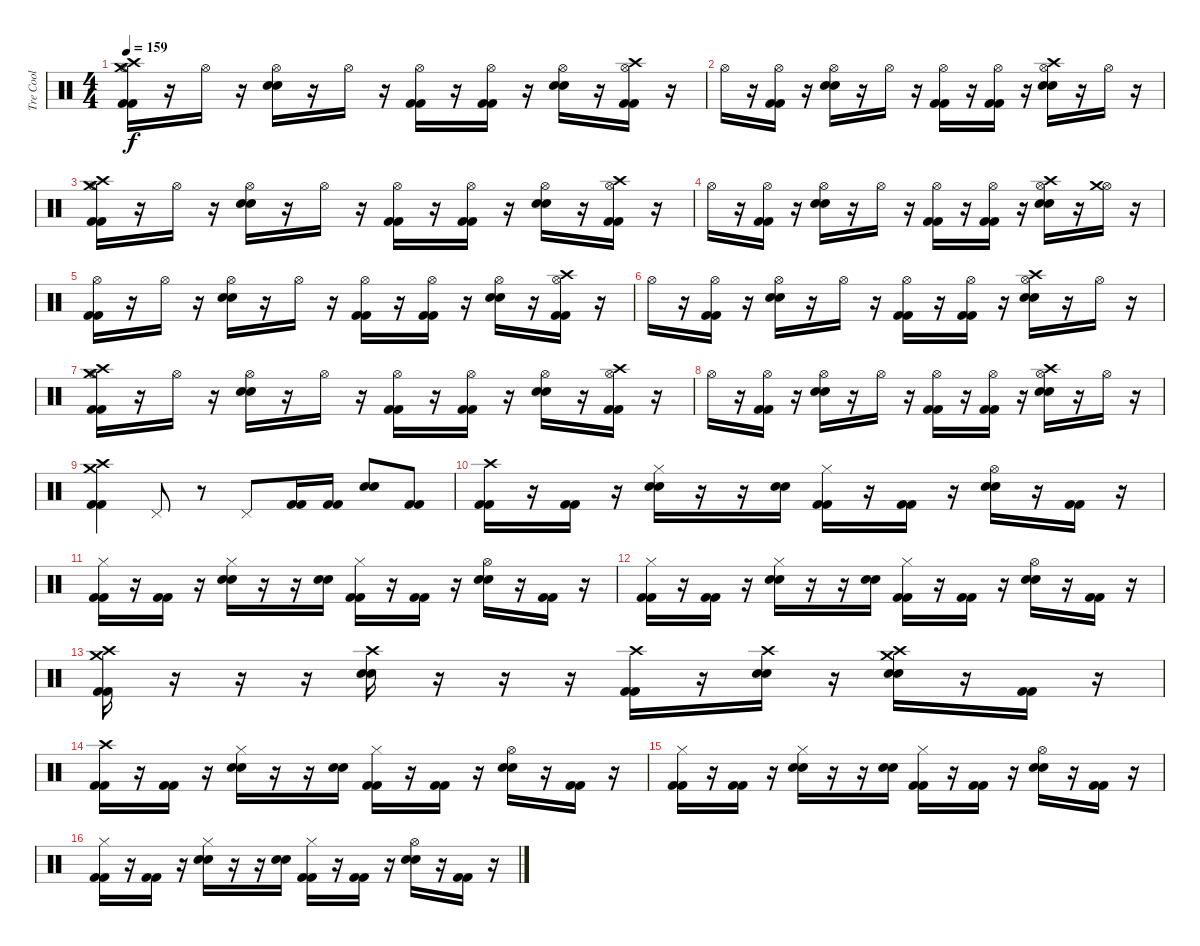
\track ("Tre Cool" "Tre Cool") {instrument percussion}
\staff {score}
\articulation defaults
\ts (4 4)
\tempo 159
\clef neutral
\ks c
("Hi-Hat (open)" "Crash high (hit)" "Crash medium (hit)" "Kick (hit) 2" "Kick (hit) 2").16{dy f} r.16 "Hi-Hat (open)".16 r.16 ("Hi-Hat (open)" "Snare (hit) 2" "Snare (hit) 2").16 r.16 "Hi-Hat (open)".16 r.16 ("Hi-Hat (open)" "Kick (hit) 2" "Kick (hit) 2").16 r.16 ("Hi-Hat (open)" "Kick (hit) 2" "Kick (hit) 2").16 r.16 ("Hi-Hat (open)" "Snare (hit) 2" "Snare (hit) 2").16 r.16 ("Hi-Hat (open)" "Crash high (hit)" "Kick (hit) 2" "Kick (hit) 2").16 r.16 |
"Hi-Hat (open)".16 r.16 ("Hi-Hat (open)" "Kick (hit) 2" "Kick (hit) 2").16 r.16 ("Hi-Hat (open)" "Snare (hit) 2" "Snare (hit) 2").16 r.16 "Hi-Hat (open)".16 r.16 ("Hi-Hat (open)" "Kick (hit) 2" "Kick (hit) 2").16 r.16 ("Hi-Hat (open)" "Kick (hit) 2" "Kick (hit) 2").16 r.16 ("Hi-Hat (open)" "Crash high (hit)" "Snare (hit) 2" "Snare (hit) 2").16 r.16 "Hi-Hat (open)".16 r.16 |
("Hi-Hat (open)" "Crash high (hit)" "Crash medium (hit)" "Kick (hit) 2" "Kick (hit) 2").16 r.16 "Hi-Hat (open)".16 r.16 ("Hi-Hat (open)" "Snare (hit) 2" "Snare (hit) 2").16 r.16 "Hi-Hat (open)".16 r.16 ("Hi-Hat (open)" "Kick (hit) 2" "Kick (hit) 2").16 r.16 ("Hi-Hat (open)" "Kick (hit) 2" "Kick (hit) 2").16 r.16 ("Hi-Hat (open)" "Snare (hit) 2" "Snare (hit) 2").16 r.16 ("Hi-Hat (open)" "Crash high (hit)" "Kick (hit) 2" "Kick (hit) 2").16 r.16 |
"Hi-Hat (open)".16 r.16 ("Hi-Hat (open)" "Kick (hit) 2" "Kick (hit) 2").16 r.16 ("Hi-Hat (open)" "Snare (hit) 2" "Snare (hit) 2").16 r.16 "Hi-Hat (open)".16 r.16 ("Hi-Hat (open)" "Kick (hit) 2" "Kick (hit) 2").16 r.16 ("Hi-Hat (open)" "Kick (hit) 2" "Kick (hit) 2").16 r.16 ("Hi-Hat (open)" "Crash high (hit)" "Snare (hit) 2" "Snare (hit) 2").16 r.16 ("Hi-Hat (open)" "Crash medium (hit)").16 r.16 |
("Hi-Hat (open)" "Kick (hit) 2" "Kick (hit) 2").16 r.16 "Hi-Hat (open)".16 r.16 ("Hi-Hat (open)" "Snare (hit) 2" "Snare (hit) 2").16 r.16 "Hi-Hat (open)".16 r.16 ("Hi-Hat (open)" "Kick (hit) 2" "Kick (hit) 2").16 r.16 ("Hi-Hat (open)" "Kick (hit) 2" "Kick (hit) 2").16 r.16 ("Hi-Hat (open)" "Snare (hit) 2" "Snare (hit) 2").16 r.16 ("Hi-Hat (open)" "Crash high (hit)" "Kick (hit) 2" "Kick (hit) 2").16 r.16 |
"Hi-Hat (open)".16 r.16 ("Hi-Hat (open)" "Kick (hit) 2" "Kick (hit) 2").16 r.16 ("Hi-Hat (open)" "Snare (hit) 2" "Snare (hit) 2").16 r.16 "Hi-Hat (open)".16 r.16 ("Hi-Hat (open)" "Kick (hit) 2" "Kick (hit) 2").16 r.16 ("Hi-Hat (open)" "Kick (hit) 2" "Kick (hit) 2").16 r.16 ("Hi-Hat (open)" "Crash high (hit)" "Snare (hit) 2" "Snare (hit) 2").16 r.16 "Hi-Hat (open)".16 r.16 |
("Hi-Hat (open)" "Crash high (hit)" "Crash medium (hit)" "Kick (hit) 2" "Kick (hit) 2").16 r.16 "Hi-Hat (open)".16 r.16 ("Hi-Hat (open)" "Snare (hit) 2" "Snare (hit) 2").16 r.16 "Hi-Hat (open)".16 r.16 ("Hi-Hat (open)" "Kick (hit) 2" "Kick (hit) 2").16 r.16 ("Hi-Hat (open)" "Kick (hit) 2" "Kick (hit) 2").16 r.16 ("Hi-Hat (open)" "Snare (hit) 2" "Snare (hit) 2").16 r.16 ("Hi-Hat (open)" "Crash high (hit)" "Kick (hit) 2" "Kick (hit) 2").16 r.16 |
"Hi-Hat (open)".16 r.16 ("Hi-Hat (open)" "Kick (hit) 2" "Kick (hit) 2").16 r.16 ("Hi-Hat (open)" "Snare (hit) 2" "Snare (hit) 2").16 r.16 "Hi-Hat (open)".16 r.16 ("Hi-Hat (open)" "Kick (hit) 2" "Kick (hit) 2").16 r.16 ("Hi-Hat (open)" "Kick (hit) 2" "Kick (hit) 2").16 r.16 ("Hi-Hat (open)" "Crash high (hit)" "Snare (hit) 2" "Snare (hit) 2").16 r.16 "Hi-Hat (open)".16 r.16 |
("Crash medium (hit)" "Crash high (hit)" "Kick (hit) 2" "Kick (hit) 2").4 "Pedal Hi-Hat (hit)".8 r.8 "Pedal Hi-Hat (hit)".8 ("Kick (hit) 2" "Kick (hit) 2").16 ("Kick (hit) 2" "Kick (hit) 2").16 ("Snare (hit) 2" "Snare (hit) 2").8 ("Kick (hit) 2" "Kick (hit) 2").8 |
("Crash high (hit)" "Kick (hit) 2" "Kick (hit) 2").16 r.16 ("Kick (hit) 2" "Kick (hit) 2").16 r.16 ("Hi-Hat (closed)" "Snare (hit) 2" "Snare (hit) 2").16 r.16 r.16 ("Snare (hit) 2" "Snare (hit) 2").16 ("Hi-Hat (closed)" "Kick (hit) 2" "Kick (hit) 2").16 r.16 ("Kick (hit) 2" "Kick (hit) 2").16 r.16 ("Hi-Hat (open)" "Snare (hit) 2" "Snare (hit) 2").16 r.16 ("Kick (hit) 2" "Kick (hit) 2").16 r.16 |
("Hi-Hat (closed)" "Kick (hit) 2" "Kick (hit) 2").16 r.16 ("Kick (hit) 2" "Kick (hit) 2").16 r.16 ("Hi-Hat (closed)" "Snare (hit) 2" "Snare (hit) 2").16 r.16 r.16 ("Snare (hit) 2" "Snare (hit) 2").16 ("Hi-Hat (closed)" "Kick (hit) 2" "Kick (hit) 2").16 r.16 ("Kick (hit) 2" "Kick (hit) 2").16 r.16 ("Hi-Hat (open)" "Snare (hit) 2" "Snare (hit) 2").16 r.16 ("Kick (hit) 2" "Kick (hit) 2").16 r.16 |
("Hi-Hat (closed)" "Kick (hit) 2" "Kick (hit) 2").16 r.16 ("Kick (hit) 2" "Kick (hit) 2").16 r.16 ("Hi-Hat (closed)" "Snare (hit) 2" "Snare (hit) 2").16 r.16 r.16 ("Snare (hit) 2" "Snare (hit) 2").16 ("Hi-Hat (closed)" "Kick (hit) 2" "Kick (hit) 2").16 r.16 ("Kick (hit) 2" "Kick (hit) 2").16 r.16 ("Hi-Hat (open)" "Snare (hit) 2" "Snare (hit) 2").16 r.16 ("Kick (hit) 2" "Kick (hit) 2").16 r.16 |
("Crash high (hit)" "Crash medium (hit)" "Kick (hit) 2" "Kick (hit) 2").16 r.16 r.16 r.16 ("Crash high (hit)" "Snare (hit) 2" "Snare (hit) 2").16 r.16 r.16 r.16 ("Crash high (hit)" "Kick (hit) 2" "Kick (hit) 2").16 r.16 ("Crash high (hit)" "Snare (hit) 2" "Snare (hit) 2").16 r.16 ("Crash high (hit)" "Crash medium (hit)" "Snare (hit) 2" "Snare (hit) 2").16 r.16 ("Kick (hit) 2" "Kick (hit) 2").16 r.16 |
("Crash high (hit)" "Kick (hit) 2" "Kick (hit) 2").16 r.16 ("Kick (hit) 2" "Kick (hit) 2").16 r.16 ("Hi-Hat (closed)" "Snare (hit) 2" "Snare (hit) 2").16 r.16 r.16 ("Snare (hit) 2" "Snare (hit) 2").16 ("Hi-Hat (closed)" "Kick (hit) 2" "Kick (hit) 2").16 r.16 ("Kick (hit) 2" "Kick (hit) 2").16 r.16 ("Hi-Hat (open)" "Snare (hit) 2" "Snare (hit) 2").16 r.16 ("Kick (hit) 2" "Kick (hit) 2").16 r.16 |
("Hi-Hat (closed)" "Kick (hit) 2" "Kick (hit) 2").16 r.16 ("Kick (hit) 2" "Kick (hit) 2").16 r.16 ("Hi-Hat (closed)" "Snare (hit) 2" "Snare (hit) 2").16 r.16 r.16 ("Snare (hit) 2" "Snare (hit) 2").16 ("Hi-Hat (closed)" "Kick (hit) 2" "Kick (hit) 2").16 r.16 ("Kick (hit) 2" "Kick (hit) 2").16 r.16 ("Hi-Hat (open)" "Snare (hit) 2" "Snare (hit) 2").16 r.16 ("Kick (hit) 2" "Kick (hit) 2").16 r.16 |
("Hi-Hat (closed)" "Kick (hit) 2" "Kick (hit) 2").16 r.16 ("Kick (hit) 2" "Kick (hit) 2").16 r.16 ("Hi-Hat (closed)" "Snare (hit) 2" "Snare (hit) 2").16 r.16 r.16 ("Snare (hit) 2" "Snare (hit) 2").16 ("Hi-Hat (closed)" "Kick (hit) 2" "Kick (hit) 2").16 r.16 ("Kick (hit) 2" "Kick (hit) 2").16 r.16 ("Hi-Hat (open)" "Snare (hit) 2" "Snare (hit) 2").16 r.16 ("Kick (hit) 2" "Kick (hit) 2").16 r.16
